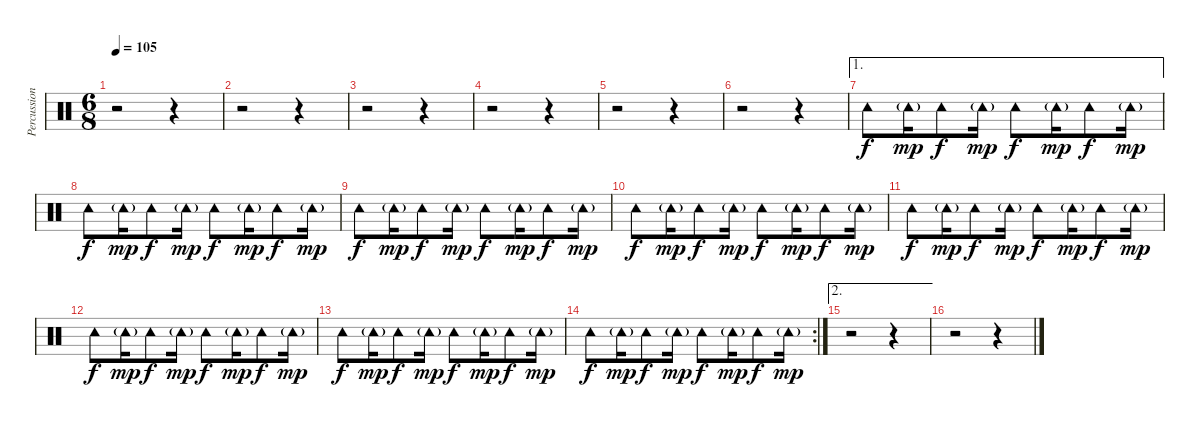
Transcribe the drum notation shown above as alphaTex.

\track ("Percussions" "Percussion") {instrument percussion}
\staff {score}
\articulation defaults
\ts (6 8)
\tempo 105
\clef neutral
\ks c
r.2{dy f} r.4 |
r.2 r.4 |
r.2 r.4 |
r.2 r.4 |
r.2 r.4 |
r.2 r.4 |
\ae 1 "Tambourine (hit)".8 "Tambourine (hit)"{g}.16{dy mp} "Tambourine (hit)".8{dy f} "Tambourine (hit)"{g}.16{dy mp} "Tambourine (hit)".8{dy f} "Tambourine (hit)"{g}.16{dy mp} "Tambourine (hit)".8{dy f} "Tambourine (hit)"{g}.16{dy mp}
|
"Tambourine (hit)".8{dy f} "Tambourine (hit)"{g}.16{dy mp} "Tambourine (hit)".8{dy f} "Tambourine (hit)"{g}.16{dy mp} "Tambourine (hit)".8{dy f} "Tambourine (hit)"{g}.16{dy mp} "Tambourine (hit)".8{dy f} "Tambourine (hit)"{g}.16{dy mp} |
"Tambourine (hit)".8{dy f} "Tambourine (hit)"{g}.16{dy mp} "Tambourine (hit)".8{dy f} "Tambourine (hit)"{g}.16{dy mp} "Tambourine (hit)".8{dy f} "Tambourine (hit)"{g}.16{dy mp} "Tambourine (hit)".8{dy f} "Tambourine (hit)"{g}.16{dy mp} |
"Tambourine (hit)".8{dy f} "Tambourine (hit)"{g}.16{dy mp} "Tambourine (hit)".8{dy f} "Tambourine (hit)"{g}.16{dy mp} "Tambourine (hit)".8{dy f} "Tambourine (hit)"{g}.16{dy mp} "Tambourine (hit)".8{dy f} "Tambourine (hit)"{g}.16{dy mp} |
"Tambourine (hit)".8{dy f} "Tambourine (hit)"{g}.16{dy mp} "Tambourine (hit)".8{dy f} "Tambourine (hit)"{g}.16{dy mp} "Tambourine (hit)".8{dy f} "Tambourine (hit)"{g}.16{dy mp} "Tambourine (hit)".8{dy f} "Tambourine (hit)"{g}.16{dy mp} |
"Tambourine (hit)".8{dy f} "Tambourine (hit)"{g}.16{dy mp} "Tambourine (hit)".8{dy f} "Tambourine (hit)"{g}.16{dy mp} "Tambourine (hit)".8{dy f} "Tambourine (hit)"{g}.16{dy mp} "Tambourine (hit)".8{dy f} "Tambourine (hit)"{g}.16{dy mp} |
"Tambourine (hit)".8{dy f} "Tambourine (hit)"{g}.16{dy mp} "Tambourine (hit)".8{dy f} "Tambourine (hit)"{g}.16{dy mp} "Tambourine (hit)".8{dy f} "Tambourine (hit)"{g}.16{dy mp} "Tambourine (hit)".8{dy f} "Tambourine (hit)"{g}.16{dy mp} |
\rc 2 "Tambourine (hit)".8{dy f} "Tambourine (hit)"{g}.16{dy mp} "Tambourine (hit)".8{dy f} "Tambourine (hit)"{g}.16{dy mp} "Tambourine (hit)".8{dy f} "Tambourine (hit)"{g}.16{dy mp} "Tambourine (hit)".8{dy f} "Tambourine (hit)"{g}.16{dy mp}
|
\ae 2
r.2 r.4 |
r.2 r.4
